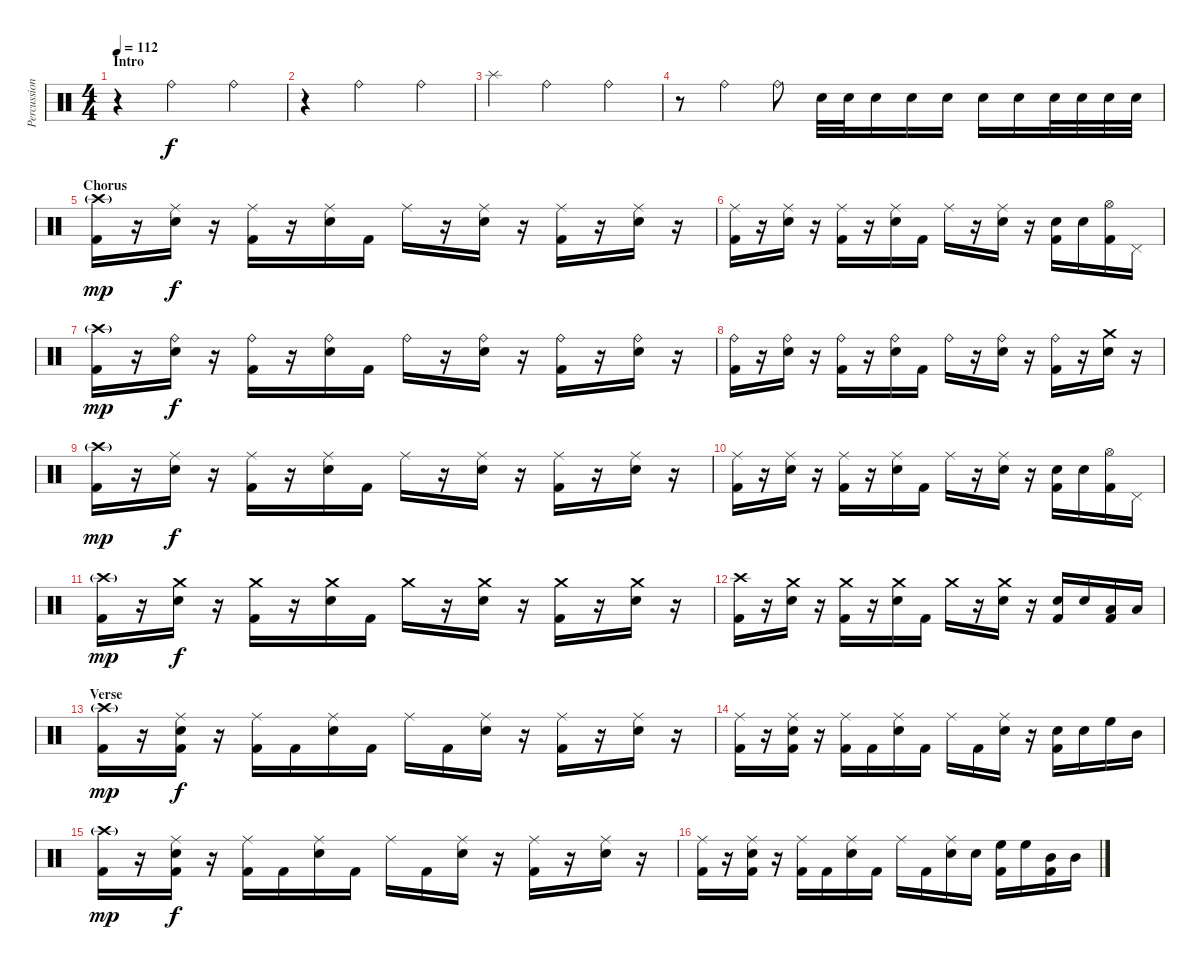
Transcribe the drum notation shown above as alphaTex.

\track ("Percussion" "Percussion") {instrument percussion}
\staff {score}
\articulation defaults
\ts (4 4)
\section ("" "Intro")
\tempo 112
\clef neutral
\ks c
r.4{dy f} "Ride (bell)".2 "Ride (bell)".4 |
r.4 "Ride (bell)".2 "Ride (bell)".4 |
"Splash (hit)".4 "Ride (bell)".2 "Ride (bell)".4 |
r.8 "Ride (bell)".4 "Ride (bell)".8 "Snare (hit) 2".32 "Snare (hit) 2".32 "Snare (hit) 2".16 "Snare (hit) 2".16 "Snare (hit) 2".16 "Snare (hit) 2".16 "Snare (hit) 2".16 "Snare (hit) 2".32 "Snare (hit) 2".32 "Snare (hit) 2".32 "Snare (hit) 2".32 |
\section ("" "Chorus")
("Crash high (hit)"{g} "Kick (hit) 2").16{dy mp} r.16 ("Ride (middle)" "Snare (hit) 2").16{dy f} r.16 ("Ride (middle)" "Kick (hit) 2").16 r.16 ("Ride (middle)" "Snare (hit) 2").16 "Kick (hit) 2".16 "Ride (middle)".16 r.16 ("Ride (middle)" "Snare (hit) 2").16 r.16 ("Ride (middle)" "Kick (hit) 2").16 r.16 ("Ride (middle)" "Snare (hit) 2").16 r.16 |
("Ride (middle)" "Kick (hit) 2").16 r.16 ("Ride (middle)" "Snare (hit) 2").16 r.16 ("Ride (middle)" "Kick (hit) 2").16 r.16 ("Ride (middle)" "Snare (hit) 2").16 "Kick (hit) 2".16 "Ride (middle)".16 r.16 ("Ride (middle)" "Snare (hit) 2").16 r.16 ("Snare (hit) 2" "Kick (hit) 2").16 "Snare (hit) 2".16 ("Hi-Hat (open)" "Kick (hit) 2").16 "Pedal Hi-Hat (hit)".16 |
("Crash high (hit)"{g} "Kick (hit) 2").16{dy mp} r.16 ("Ride (bell)" "Snare (hit) 2").16{dy f} r.16 ("Ride (bell)" "Kick (hit) 2").16 r.16 ("Ride (bell)" "Snare (hit) 2").16 "Kick (hit) 2".16 "Ride (bell)".16 r.16 ("Ride (bell)" "Snare (hit) 2").16 r.16 ("Ride (bell)" "Kick (hit) 2").16 r.16 ("Ride (bell)" "Snare (hit) 2").16 r.16 |
("Ride (bell)" "Kick (hit) 2").16 r.16 ("Ride (bell)" "Snare (hit) 2").16 r.16 ("Ride (bell)" "Kick (hit) 2").16 r.16 ("Ride (bell)" "Snare (hit) 2").16 "Kick (hit) 2".16 "Ride (bell)".16 r.16 ("Ride (bell)" "Snare (hit) 2").16 r.16 ("Ride (bell)" "Kick (hit) 2").16 r.16 ("Crash medium (hit)" "Snare (hit) 2").16 r.16 |
("Crash high (hit)"{g} "Kick (hit) 2").16{dy mp} r.16 ("Ride (middle)" "Snare (hit) 2").16{dy f} r.16 ("Ride (middle)" "Kick (hit) 2").16 r.16 ("Ride (middle)" "Snare (hit) 2").16 "Kick (hit) 2".16 "Ride (middle)".16 r.16 ("Ride (middle)" "Snare (hit) 2").16 r.16 ("Ride (middle)" "Kick (hit) 2").16 r.16 ("Ride (middle)" "Snare (hit) 2").16 r.16 |
("Ride (middle)" "Kick (hit) 2").16 r.16 ("Ride (middle)" "Snare (hit) 2").16 r.16 ("Ride (middle)" "Kick (hit) 2").16 r.16 ("Ride (middle)" "Snare (hit) 2").16 "Kick (hit) 2".16 "Ride (middle)".16 r.16 ("Ride (middle)" "Snare (hit) 2").16 r.16 ("Snare (hit) 2" "Kick (hit) 2").16 "Snare (hit) 2".16 ("Hi-Hat (open)" "Kick (hit) 2").16 "Pedal Hi-Hat (hit)".16 |
("Crash high (hit)"{g} "Kick (hit) 2").16{dy mp} r.16 ("Crash medium (hit)" "Snare (hit) 2").16{dy f} r.16 ("Crash medium (hit)" "Kick (hit) 2").16 r.16 ("Crash medium (hit)" "Snare (hit) 2").16 "Kick (hit) 2".16 "Crash medium (hit)".16 r.16 ("Crash medium (hit)" "Snare (hit) 2").16 r.16 ("Crash medium (hit)" "Kick (hit) 2").16 r.16 ("Crash medium (hit)" "Snare (hit) 2").16 r.16 |
("Crash high (hit)" "Kick (hit) 2").16 r.16 ("Crash medium (hit)" "Snare (hit) 2").16 r.16 ("Crash medium (hit)" "Kick (hit) 2").16 r.16 ("Crash medium (hit)" "Snare (hit) 2").16 "Kick (hit) 2".16 "Crash medium (hit)".16 r.16 ("Crash medium (hit)" "Snare (hit) 2").16 r.16 ("Snare (hit) 2" "Kick (hit) 2").16 "Snare (hit) 2".16 ("Low Tom (hit)" "Kick (hit) 2").16 "Low Tom (hit)".16 |
\section ("" "Verse")
("Crash high (hit)"{g} "Kick (hit) 2").16{dy mp} r.16 ("Ride (middle)" "Snare (hit) 2" "Kick (hit) 2").16{dy f} r.16 ("Ride (middle)" "Kick (hit) 2").16 "Kick (hit) 2".16 ("Ride (middle)" "Snare (hit) 2").16 "Kick (hit) 2".16 "Ride (middle)".16 "Kick (hit) 2".16 ("Ride (middle)" "Snare (hit) 2").16 r.16 ("Ride (middle)" "Kick (hit) 2").16 r.16 ("Ride (middle)" "Snare (hit) 2").16 r.16 |
("Ride (middle)" "Kick (hit) 2").16 r.16 ("Ride (middle)" "Snare (hit) 2" "Kick (hit) 2").16 r.16 ("Ride (middle)" "Kick (hit) 2").16 "Kick (hit) 2".16 ("Ride (middle)" "Snare (hit) 2").16 "Kick (hit) 2".16 "Ride (middle)".16 "Kick (hit) 2".16 ("Ride (middle)" "Snare (hit) 2").16 r.16 ("Snare (hit) 2" "Kick (hit) 2").16 "Snare (hit) 2".16 "High Floor Tom (hit)".16 "Mid Tom (hit)".16 |
("Crash high (hit)"{g} "Kick (hit) 2").16{dy mp} r.16 ("Ride (middle)" "Snare (hit) 2" "Kick (hit) 2").16{dy f} r.16 ("Ride (middle)" "Kick (hit) 2").16 "Kick (hit) 2".16 ("Ride (middle)" "Snare (hit) 2").16 "Kick (hit) 2".16 "Ride (middle)".16 "Kick (hit) 2".16 ("Ride (middle)" "Snare (hit) 2").16 r.16 ("Ride (middle)" "Kick (hit) 2").16 r.16 ("Ride (middle)" "Snare (hit) 2").16 r.16 |
("Ride (middle)" "Kick (hit) 2").16 r.16 ("Ride (middle)" "Snare (hit) 2" "Kick (hit) 2").16 r.16 ("Ride (middle)" "Kick (hit) 2").16 "Kick (hit) 2".16 ("Ride (middle)" "Snare (hit) 2").16 "Kick (hit) 2".16 "Ride (middle)".16 "Kick (hit) 2".16 ("Ride (middle)" "Snare (hit) 2").16 "Snare (hit) 2".16 ("High Floor Tom (hit)" "Kick (hit) 2").16 "High Floor Tom (hit)".16 ("Mid Tom (hit)" "Kick (hit) 2").16 "Mid Tom (hit)".16
